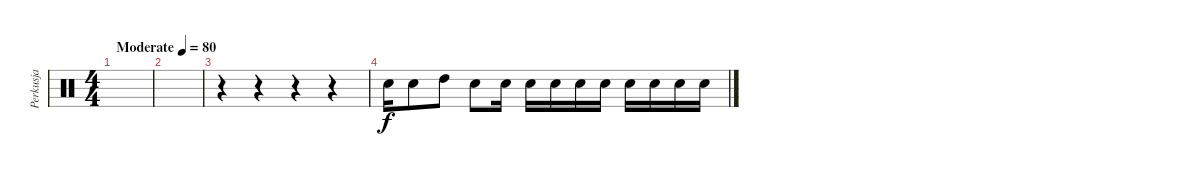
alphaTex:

\track ("Perkusja" "Perkusja") {instrument percussion}
\staff {score}
\articulation defaults
\ts (4 4)
\tempo (80 "Moderate")
\clef neutral
\ks c
|
|
r.4 r.4 r.4 r.4 |
"Snare (hit) 2".16 "Snare (hit) 2".8 "High Tom (hit)".8 "Snare (hit) 2".8 "Snare (hit) 2".16 "Electric Snare (hit)".16 "Electric Snare (hit)".16 "Electric Snare (hit)".16 "Electric Snare (hit)".16 "Electric Snare (hit)".16 "Electric Snare (hit)".16 "Electric Snare (hit)".16 "Electric Snare (hit)".16
